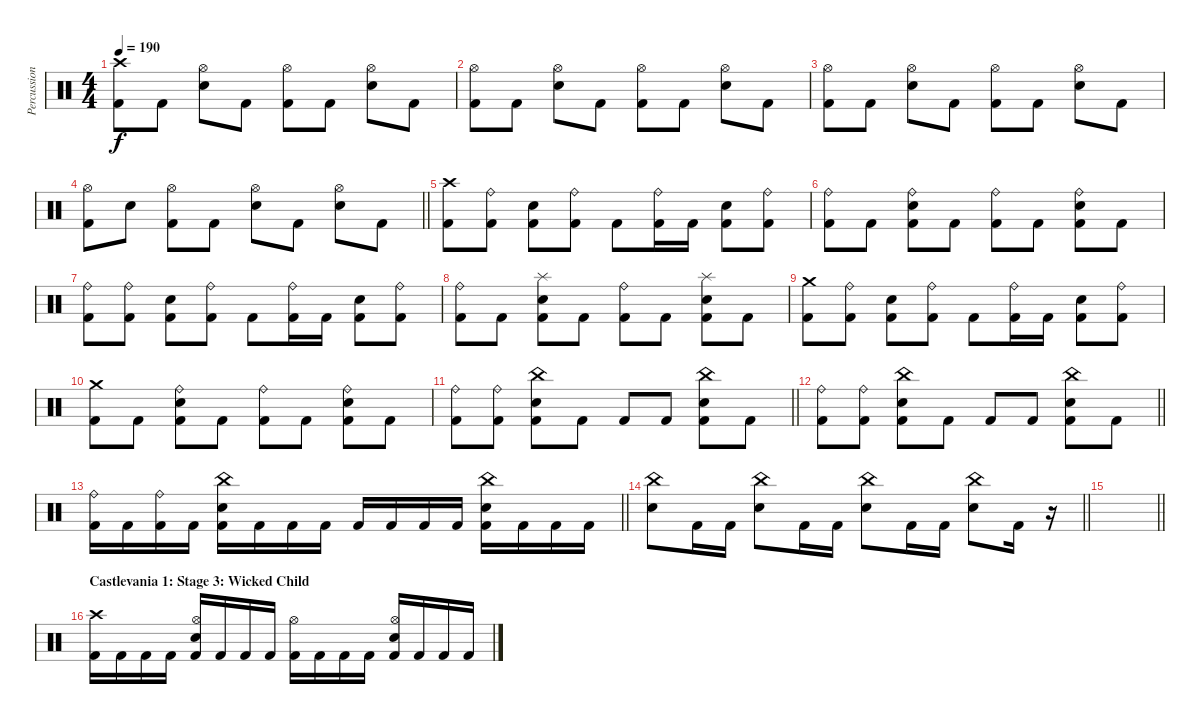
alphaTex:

\track ("Percussion" "Percussion") {instrument percussion}
\staff {score}
\articulation defaults
\ts (4 4)
\tempo 190
\clef neutral
\ks c
("Crash high (hit)" "Kick (hit) 2").8{dy f} "Kick (hit) 2".8 ("Hi-Hat (open)" "Snare (hit) 2").8 "Kick (hit) 2".8 ("Hi-Hat (open)" "Kick (hit) 2").8 "Kick (hit) 2".8 ("Hi-Hat (open)" "Snare (hit) 2").8 "Kick (hit) 2".8 |
("Hi-Hat (open)" "Kick (hit) 2").8 "Kick (hit) 2".8 ("Hi-Hat (open)" "Snare (hit) 2").8 "Kick (hit) 2".8 ("Hi-Hat (open)" "Kick (hit) 2").8 "Kick (hit) 2".8 ("Hi-Hat (open)" "Snare (hit) 2").8 "Kick (hit) 2".8 |
("Hi-Hat (open)" "Kick (hit) 2").8 "Kick (hit) 2".8 ("Hi-Hat (open)" "Snare (hit) 2").8 "Kick (hit) 2".8 ("Hi-Hat (open)" "Kick (hit) 2").8 "Kick (hit) 2".8 ("Hi-Hat (open)" "Snare (hit) 2").8 "Kick (hit) 2".8 |
\barLineRight lightlight
("Hi-Hat (open)" "Kick (hit) 2").8 "Snare (hit) 2".8 ("Hi-Hat (open)" "Kick (hit) 2").8 "Kick (hit) 2".8 ("Hi-Hat (open)" "Snare (hit) 2").8 "Kick (hit) 2".8 ("Hi-Hat (open)" "Snare (hit) 2").8 "Kick (hit) 2".8 |
\section ("" "")
("Crash high (hit)" "Kick (hit) 2").8 ("Ride (bell)" "Kick (hit) 2").8 ("Snare (hit) 2" "Kick (hit) 2").8 ("Ride (bell)" "Kick (hit) 2").8 "Kick (hit) 2".8 ("Ride (bell)" "Kick (hit) 2").16 "Kick (hit) 2".16 ("Snare (hit) 2" "Kick (hit) 2").8 ("Ride (bell)" "Kick (hit) 2").8 |
("Ride (bell)" "Kick (hit) 2").8 "Kick (hit) 2".8 ("Ride (bell)" "Snare (hit) 2" "Kick (hit) 2").8 "Kick (hit) 2".8 ("Ride (bell)" "Kick (hit) 2").8 "Kick (hit) 2".8 ("Ride (bell)" "Snare (hit) 2" "Kick (hit) 2").8 "Kick (hit) 2".8 |
("Ride (bell)" "Kick (hit) 2").8 ("Ride (bell)" "Kick (hit) 2").8 ("Snare (hit) 2" "Kick (hit) 2").8 ("Ride (bell)" "Kick (hit) 2").8 "Kick (hit) 2".8 ("Ride (bell)" "Kick (hit) 2").16 "Kick (hit) 2".16 ("Snare (hit) 2" "Kick (hit) 2").8 ("Ride (bell)" "Kick (hit) 2").8 |
("Ride (bell)" "Kick (hit) 2").8 "Kick (hit) 2".8 ("Splash (hit)" "Snare (hit) 2" "Kick (hit) 2").8 "Kick (hit) 2".8 ("Ride (bell)" "Kick (hit) 2").8 "Kick (hit) 2".8 ("Splash (hit)" "Snare (hit) 2" "Kick (hit) 2").8 "Kick (hit) 2".8 |
("Crash medium (hit)" "Kick (hit) 2").8 ("Ride (bell)" "Kick (hit) 2").8 ("Snare (hit) 2" "Kick (hit) 2").8 ("Ride (bell)" "Kick (hit) 2").8 "Kick (hit) 2".8 ("Ride (bell)" "Kick (hit) 2").16 "Kick (hit) 2".16 ("Snare (hit) 2" "Kick (hit) 2").8 ("Ride (bell)" "Kick (hit) 2").8 |
("Crash medium (hit)" "Kick (hit) 2").8 "Kick (hit) 2".8 ("Ride (bell)" "Snare (hit) 2" "Kick (hit) 2").8 "Kick (hit) 2".8 ("Ride (bell)" "Kick (hit) 2").8 "Kick (hit) 2".8 ("Ride (bell)" "Snare (hit) 2" "Kick (hit) 2").8 "Kick (hit) 2".8 |
\barLineRight lightlight
("Ride (bell)" "Kick (hit) 2").8 ("Ride (bell)" "Kick (hit) 2").8 ("China (hit)" "Snare (hit) 2" "Kick (hit) 2").8 "Kick (hit) 2".8 "Kick (hit) 2".8 "Kick (hit) 2".8 ("China (hit)" "Snare (hit) 2" "Kick (hit) 2").8 "Kick (hit) 2".8 |
\barLineRight lightlight
("Ride (bell)" "Kick (hit) 2").8 ("Ride (bell)" "Kick (hit) 2").8 ("China (hit)" "Snare (hit) 2" "Kick (hit) 2").8 "Kick (hit) 2".8 "Kick (hit) 2".8 "Kick (hit) 2".8 ("China (hit)" "Snare (hit) 2" "Kick (hit) 2").8 "Kick (hit) 2".8 |
\barLineRight lightlight
("Ride (bell)" "Kick (hit) 2").16 "Kick (hit) 2".16 ("Ride (bell)" "Kick (hit) 2").16 "Kick (hit) 2".16 ("China (hit)" "Snare (hit) 2" "Kick (hit) 2").16 "Kick (hit) 2".16 "Kick (hit) 2".16 "Kick (hit) 2".16 "Kick (hit) 2".16 "Kick (hit) 2".16 "Kick (hit) 2".16 "Kick (hit) 2".16 ("China (hit)" "Snare (hit) 2" "Kick (hit) 2").16 "Kick (hit) 2".16 "Kick (hit) 2".16 "Kick (hit) 2".16 |
\barLineRight lightlight
("China (hit)" "Snare (hit) 2").8 "Kick (hit) 2".16 "Kick (hit) 2".16 ("China (hit)" "Snare (hit) 2").8 "Kick (hit) 2".16 "Kick (hit) 2".16 ("China (hit)" "Snare (hit) 2").8 "Kick (hit) 2".16 "Kick (hit) 2".16 ("China (hit)" "Snare (hit) 2").8 "Kick (hit) 2".16 r.16 |
\section ("" "")
\barLineRight lightlight
|
\section ("" "Castlevania 1: Stage 3: Wicked Child")
("Crash high (hit)" "Kick (hit) 2").16 "Kick (hit) 2".16 "Kick (hit) 2".16 "Kick (hit) 2".16 ("Hi-Hat (open)" "Snare (hit) 2" "Kick (hit) 2").16 "Kick (hit) 2".16 "Kick (hit) 2".16 "Kick (hit) 2".16 ("Hi-Hat (open)" "Kick (hit) 2").16 "Kick (hit) 2".16 "Kick (hit) 2".16 "Kick (hit) 2".16 ("Hi-Hat (open)" "Snare (hit) 2" "Kick (hit) 2").16 "Kick (hit) 2".16 "Kick (hit) 2".16 "Kick (hit) 2".16
